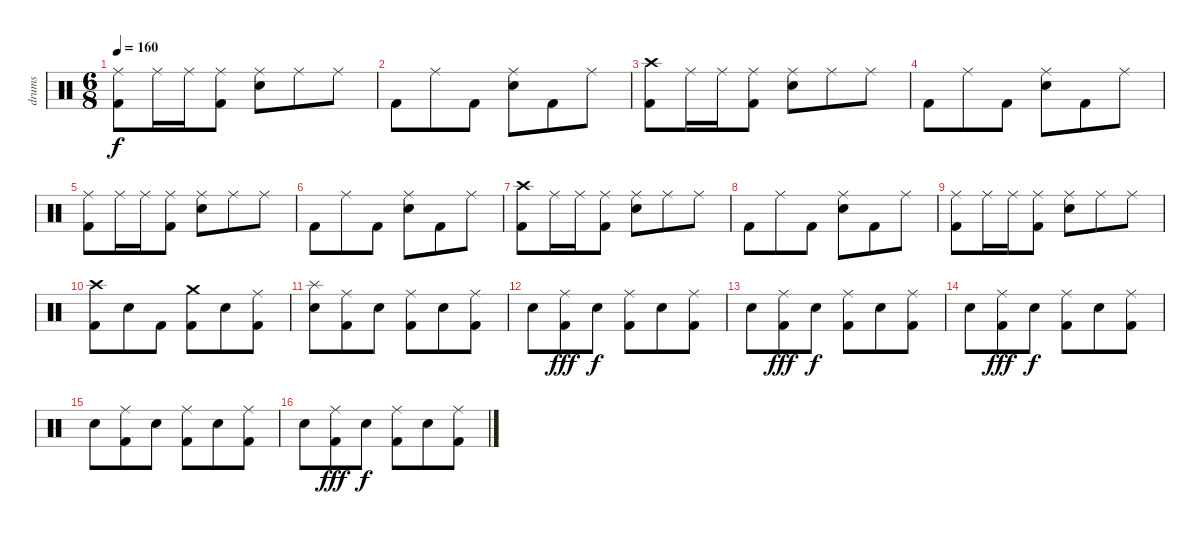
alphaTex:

\track ("drums" "drums") {instrument percussion}
\staff {score}
\articulation defaults
\ts (6 8)
\tempo 160
\clef neutral
\ks c
("Ride (middle)" "Kick (hit) 2").8{dy f} "Ride (middle)".16 "Ride (middle)".16 ("Kick (hit) 2" "Ride (middle)").8 ("Electric Snare (hit)" "Ride (middle)").8 "Ride (middle)".8 "Ride (middle)".8 |
"Kick (hit) 2".8 "Ride (middle)".8 "Kick (hit) 2".8 ("Electric Snare (hit)" "Ride (middle)").8 "Kick (hit) 2".8 "Ride (middle)".8 |
("Kick (hit) 2" "Crash high (hit)").8 "Ride (middle)".16 "Ride (middle)".16 ("Kick (hit) 2" "Ride (middle)").8 ("Electric Snare (hit)" "Ride (middle)").8 "Ride (middle)".8 "Ride (middle)".8 |
"Kick (hit) 2".8 "Ride (middle)".8 "Kick (hit) 2".8 ("Electric Snare (hit)" "Ride (middle)").8 "Kick (hit) 2".8 "Ride (middle)".8 |
("Ride (middle)" "Kick (hit) 2").8 "Ride (middle)".16 "Ride (middle)".16 ("Kick (hit) 2" "Ride (middle)").8 ("Electric Snare (hit)" "Ride (middle)").8 "Ride (middle)".8 "Ride (middle)".8 |
"Kick (hit) 2".8 "Ride (middle)".8 "Kick (hit) 2".8 ("Electric Snare (hit)" "Ride (middle)").8 "Kick (hit) 2".8 "Ride (middle)".8 |
("Kick (hit) 2" "Crash high (hit)").8 "Ride (middle)".16 "Ride (middle)".16 ("Kick (hit) 2" "Ride (middle)").8 ("Electric Snare (hit)" "Ride (middle)").8 "Ride (middle)".8 "Ride (middle)".8 |
"Kick (hit) 2".8 "Ride (middle)".8 "Kick (hit) 2".8 ("Electric Snare (hit)" "Ride (middle)").8 "Kick (hit) 2".8 "Ride (middle)".8 |
("Ride (middle)" "Kick (hit) 2").8 "Ride (middle)".16 "Ride (middle)".16 ("Kick (hit) 2" "Ride (middle)").8 ("Electric Snare (hit)" "Ride (middle)").8 "Ride (middle)".8 "Ride (middle)".8 |
("Crash high (hit)" "Kick (hit) 2").8 "Electric Snare (hit)".8 "Kick (hit) 2".8 ("Crash medium (hit)" "Kick (hit) 2").8 "Electric Snare (hit)".8 ("Kick (hit) 2" "Ride (middle)").8 |
("Splash (hit)" "Electric Snare (hit)").8 ("Ride (middle)" "Kick (hit) 2").8 "Electric Snare (hit)".8 ("Ride (middle)" "Kick (hit) 2").8 "Electric Snare (hit)".8 ("Ride (middle)" "Kick (hit) 2").8 |
"Electric Snare (hit)".8 ("Ride (middle)" "Kick (hit) 2").8{dy fff} "Electric Snare (hit)".8{dy f} ("Ride (middle)" "Kick (hit) 2").8 "Electric Snare (hit)".8 ("Ride (middle)" "Kick (hit) 2").8 |
"Electric Snare (hit)".8 ("Ride (middle)" "Kick (hit) 2").8{dy fff} "Electric Snare (hit)".8{dy f} ("Ride (middle)" "Kick (hit) 2").8 "Electric Snare (hit)".8 ("Ride (middle)" "Kick (hit) 2").8 |
"Electric Snare (hit)".8 ("Ride (middle)" "Kick (hit) 2").8{dy fff} "Electric Snare (hit)".8{dy f} ("Ride (middle)" "Kick (hit) 2").8 "Electric Snare (hit)".8 ("Ride (middle)" "Kick (hit) 2").8 |
"Electric Snare (hit)".8 ("Ride (middle)" "Kick (hit) 2").8 "Electric Snare (hit)".8 ("Ride (middle)" "Kick (hit) 2").8 "Electric Snare (hit)".8 ("Ride (middle)" "Kick (hit) 2").8 |
"Electric Snare (hit)".8 ("Ride (middle)" "Kick (hit) 2").8{dy fff} "Electric Snare (hit)".8{dy f} ("Ride (middle)" "Kick (hit) 2").8 "Electric Snare (hit)".8 ("Ride (middle)" "Kick (hit) 2").8
